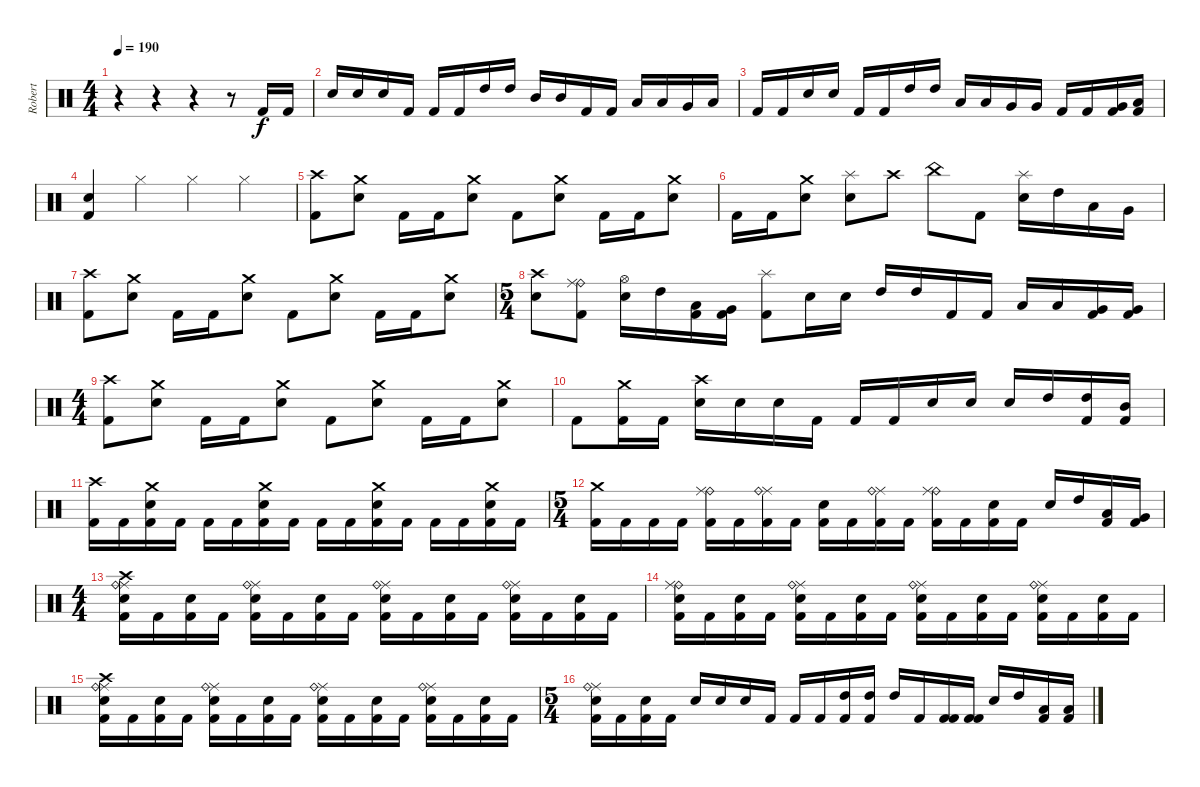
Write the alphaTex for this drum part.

\track ("Robert" "Robert") {instrument percussion}
\staff {score}
\articulation defaults
\ts (4 4)
\tempo 190
\clef neutral
\ks c
r.4{dy f} r.4 r.4 r.8 "Kick (hit) 2".16 "Kick (hit) 2".16 |
"Electric Snare (hit)".16 "Electric Snare (hit)".16 "Electric Snare (hit)".16 "Kick (hit) 2".16 "Kick (hit) 2".16 "Kick (hit) 2".16 "High Tom (hit)".16 "High Tom (hit)".16 "Mid Tom (hit)".16 "Mid Tom (hit)".16 "Kick (hit) 2".16 "Kick (hit) 2".16 "Low Tom (hit)".16 "Low Tom (hit)".16 "Very Low Tom (hit)".16 "Low Floor Tom (hit)".16 |
"Kick (hit) 2".16 "Kick (hit) 2".16 "Electric Snare (hit)".16 "Electric Snare (hit)".16 "Kick (hit) 2".16 "Kick (hit) 2".16 "High Tom (hit)".16 "High Tom (hit)".16 "Low Tom (hit)".16 "Low Tom (hit)".16 "Very Low Tom (hit)".16 "Very Low Tom (hit)".16 "Kick (hit) 2".16 "Kick (hit) 2".16 ("Very Low Tom (hit)" "Kick (hit) 2").16 ("Low Floor Tom (hit)" "Kick (hit) 2").16 |
("Electric Snare (hit)" "Kick (hit) 2").4 "Hi-Hat (closed)".4 "Hi-Hat (closed)".4 "Hi-Hat (closed)".4 |
("Kick (hit) 2" "Crash high (hit)").8 ("Electric Snare (hit)" "Crash medium (hit)").8 "Kick (hit) 2".16 "Kick (hit) 2".16 ("Electric Snare (hit)" "Crash medium (hit)").8 "Kick (hit) 2".8 ("Electric Snare (hit)" "Crash medium (hit)").8 "Kick (hit) 2".16 "Kick (hit) 2".16 ("Electric Snare (hit)" "Crash medium (hit)").8 |
"Kick (hit) 2".16 "Kick (hit) 2".16 ("Electric Snare (hit)" "Crash medium (hit)").8 ("Splash (hit)" "Electric Snare (hit)").8 "Crash high (hit)".8 "China (hit)".8 "Kick (hit) 2".8 ("Splash (hit)" "Electric Snare (hit)").16 "High Tom (hit)".16 "Low Tom (hit)".16 "Very Low Tom (hit)".16 |
("Kick (hit) 2" "Crash high (hit)").8 ("Electric Snare (hit)" "Crash medium (hit)").8 "Kick (hit) 2".16 "Kick (hit) 2".16 ("Electric Snare (hit)" "Crash medium (hit)").8 "Kick (hit) 2".8 ("Electric Snare (hit)" "Crash medium (hit)").8 "Kick (hit) 2".16 "Kick (hit) 2".16 ("Electric Snare (hit)" "Crash medium (hit)").8 |
\ts (5 4)
("Electric Snare (hit)" "Crash high (hit)").8 ("Ride (bell)" "Ride (middle)" "Kick (hit) 2").8 ("Hi-Hat (open)" "Electric Snare (hit)").16 "High Tom (hit)".16 ("Low Tom (hit)" "Kick (hit) 2").16 ("Very Low Tom (hit)" "Kick (hit) 2").16 ("Splash (hit)" "Kick (hit) 2").8 "Electric Snare (hit)".16 "Electric Snare (hit)".16 "High Tom (hit)".16 "High Tom (hit)".16 "Kick (hit) 2".16 "Kick (hit) 2".16 "Low Tom (hit)".16 "Low Tom (hit)".16 ("Very Low Tom (hit)" "Kick (hit) 2").16 ("Very Low Tom (hit)" "Kick (hit) 2").16 |
\ts (4 4)
("Kick (hit) 2" "Crash high (hit)").8 ("Electric Snare (hit)" "Crash medium (hit)").8 "Kick (hit) 2".16 "Kick (hit) 2".16 ("Electric Snare (hit)" "Crash medium (hit)").8 "Kick (hit) 2".8 ("Electric Snare (hit)" "Crash medium (hit)").8 "Kick (hit) 2".16 "Kick (hit) 2".16 ("Electric Snare (hit)" "Crash medium (hit)").8 |
"Kick (hit) 2".8 ("Crash medium (hit)" "Kick (hit) 2").16 "Kick (hit) 2".16 ("Crash high (hit)" "Electric Snare (hit)").16 "Electric Snare (hit)".16 "Electric Snare (hit)".16 "Kick (hit) 2".16 "Kick (hit) 2".16 "Kick (hit) 2".16 "Electric Snare (hit)".16 "Electric Snare (hit)".16 "Electric Snare (hit)".16 "High Tom (hit)".16 ("High Tom (hit)" "Kick (hit) 2").16 ("Mid Tom (hit)" "Kick (hit) 2").16 |
("Crash high (hit)" "Kick (hit) 2").16 "Kick (hit) 2".16 ("Crash medium (hit)" "Electric Snare (hit)" "Kick (hit) 2").16 "Kick (hit) 2".16 "Kick (hit) 2".16 "Kick (hit) 2".16 ("Crash medium (hit)" "Electric Snare (hit)" "Kick (hit) 2").16 "Kick (hit) 2".16 "Kick (hit) 2".16 "Kick (hit) 2".16 ("Crash medium (hit)" "Electric Snare (hit)" "Kick (hit) 2").16 "Kick (hit) 2".16 "Kick (hit) 2".16 "Kick (hit) 2".16 ("Crash medium (hit)" "Electric Snare (hit)" "Kick (hit) 2").16 "Kick (hit) 2".16 |
\ts (5 4)
("Crash medium (hit)" "Kick (hit) 2").16 "Kick (hit) 2".16 "Kick (hit) 2".16 "Kick (hit) 2".16 ("Ride (bell)" "Ride (middle)" "Kick (hit) 2").16 "Kick (hit) 2".16 ("Ride (middle)" "Ride (bell)" "Kick (hit) 2").16 "Kick (hit) 2".16 ("Electric Snare (hit)" "Kick (hit) 2").16 "Kick (hit) 2".16 ("Ride (middle)" "Ride (bell)" "Kick (hit) 2").16 "Kick (hit) 2".16 ("Ride (bell)" "Ride (middle)" "Kick (hit) 2").16 "Kick (hit) 2".16 ("Electric Snare (hit)" "Kick (hit) 2").16 "Kick (hit) 2".16 "Electric Snare (hit)".16 "High Tom (hit)".16 ("Low Tom (hit)" "Kick (hit) 2").16 ("Very Low Tom (hit)" "Kick (hit) 2").16 |
\ts (4 4)
("Crash high (hit)" "Ride (middle)" "Electric Snare (hit)" "Ride (bell)" "Kick (hit) 2").16 "Kick (hit) 2".16 ("Electric Snare (hit)" "Kick (hit) 2").16 "Kick (hit) 2".16 ("Ride (middle)" "Electric Snare (hit)" "Ride (bell)" "Kick (hit) 2").16 "Kick (hit) 2".16 ("Electric Snare (hit)" "Kick (hit) 2").16 "Kick (hit) 2".16 ("Ride (middle)" "Electric Snare (hit)" "Ride (bell)" "Kick (hit) 2").16 "Kick (hit) 2".16 ("Electric Snare (hit)" "Kick (hit) 2").16 "Kick (hit) 2".16 ("Ride (middle)" "Ride (bell)" "Electric Snare (hit)" "Kick (hit) 2").16 "Kick (hit) 2".16 ("Electric Snare (hit)" "Kick (hit) 2").16 "Kick (hit) 2".16 |
("Ride (bell)" "Ride (middle)" "Kick (hit) 2" "Electric Snare (hit)").16 "Kick (hit) 2".16 ("Electric Snare (hit)" "Kick (hit) 2").16 "Kick (hit) 2".16 ("Ride (middle)" "Electric Snare (hit)" "Ride (bell)" "Kick (hit) 2").16 "Kick (hit) 2".16 ("Electric Snare (hit)" "Kick (hit) 2").16 "Kick (hit) 2".16 ("Ride (middle)" "Electric Snare (hit)" "Ride (bell)" "Kick (hit) 2").16 "Kick (hit) 2".16 ("Electric Snare (hit)" "Kick (hit) 2").16 "Kick (hit) 2".16 ("Ride (middle)" "Ride (bell)" "Electric Snare (hit)" "Kick (hit) 2").16 "Kick (hit) 2".16 ("Electric Snare (hit)" "Kick (hit) 2").16 "Kick (hit) 2".16 |
("Crash high (hit)" "Ride (middle)" "Electric Snare (hit)" "Ride (bell)" "Kick (hit) 2").16 "Kick (hit) 2".16 ("Electric Snare (hit)" "Kick (hit) 2").16 "Kick (hit) 2".16 ("Ride (middle)" "Electric Snare (hit)" "Ride (bell)" "Kick (hit) 2").16 "Kick (hit) 2".16 ("Electric Snare (hit)" "Kick (hit) 2").16 "Kick (hit) 2".16 ("Ride (middle)" "Electric Snare (hit)" "Ride (bell)" "Kick (hit) 2").16 "Kick (hit) 2".16 ("Electric Snare (hit)" "Kick (hit) 2").16 "Kick (hit) 2".16 ("Ride (middle)" "Ride (bell)" "Electric Snare (hit)" "Kick (hit) 2").16 "Kick (hit) 2".16 ("Electric Snare (hit)" "Kick (hit) 2").16 "Kick (hit) 2".16 |
\ts (5 4)
("Ride (middle)" "Ride (bell)" "Electric Snare (hit)" "Kick (hit) 2").16 "Kick (hit) 2".16 ("Electric Snare (hit)" "Kick (hit) 2").16 "Kick (hit) 2".16 "Electric Snare (hit)".16 "Electric Snare (hit)".16 "Electric Snare (hit)".16 "Kick (hit) 2".16 "Kick (hit) 2".16 "Kick (hit) 2".16 ("High Tom (hit)" "Kick (hit) 2").16 ("High Tom (hit)" "Kick (hit) 2").16 "High Tom (hit)".16 "Kick (hit) 2".16 ("Kick (hit) 2" "Kick (hit) 2").16 ("Kick (hit) 2" "Kick (hit) 2").16 "Electric Snare (hit)".16 "High Tom (hit)".16 ("Low Tom (hit)" "Kick (hit) 2").16 ("Low Tom (hit)" "Kick (hit) 2").16
